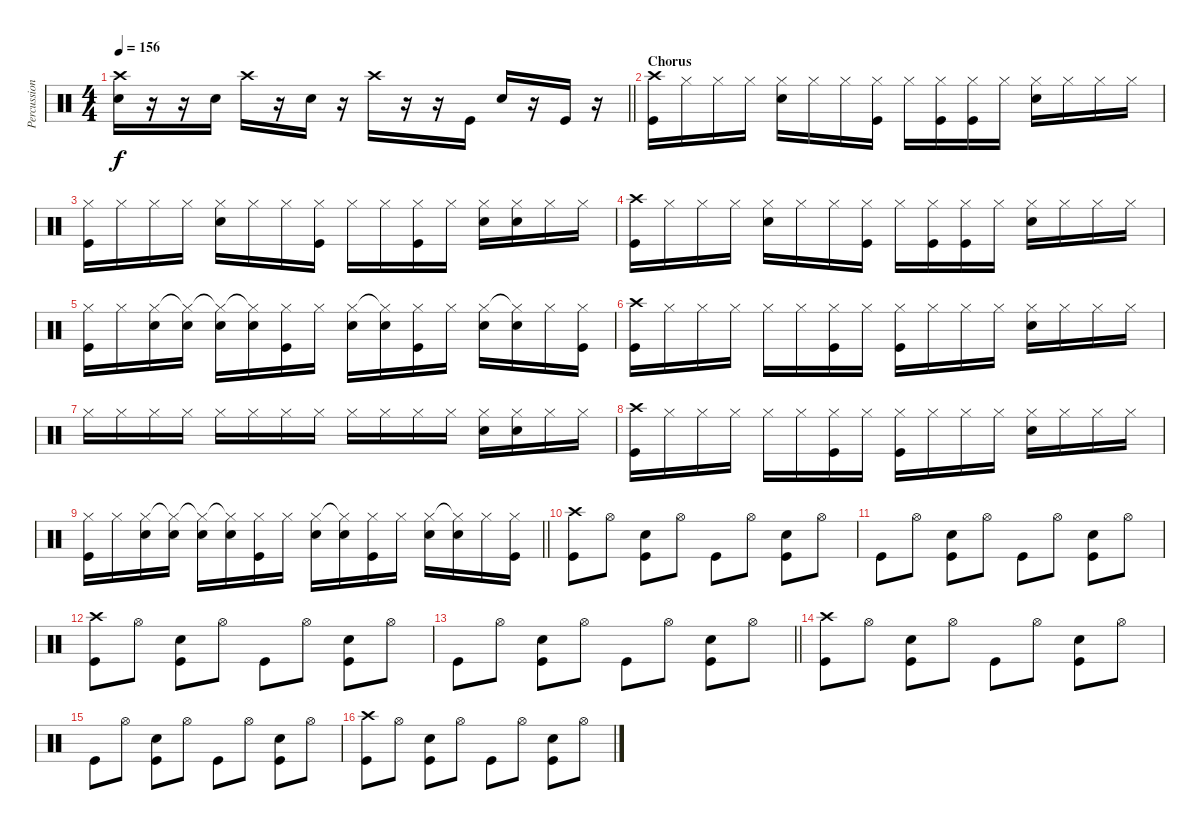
\track ("Percussion" "Percussion") {instrument percussion}
\staff {score}
\articulation defaults
\ts (4 4)
\tempo 156
\clef neutral
\barLineRight lightlight
\ks c
("Crash high (hit)" "Snare (hit) 2").16{dy f} r.16 r.16 "Snare (hit) 2".16 "Crash high (hit)".16 r.16 "Snare (hit) 2".16 r.16 "Crash high (hit)".16 r.16 r.16 "Kick (hit)".16 "Snare (hit) 2".16 r.16 "Kick (hit)".16 r.16 |
\section ("" "Chorus")
("Crash high (hit)" "Kick (hit)").16 "Hi-Hat (closed)".16 "Hi-Hat (closed)".16 "Hi-Hat (closed)".16 ("Hi-Hat (closed)" "Snare (hit) 2").16 "Hi-Hat (closed)".16 "Hi-Hat (closed)".16 ("Hi-Hat (closed)" "Kick (hit)").16 "Hi-Hat (closed)".16 ("Hi-Hat (closed)" "Kick (hit)").16 ("Hi-Hat (closed)" "Kick (hit)").16 "Hi-Hat (closed)".16 ("Hi-Hat (closed)" "Snare (hit) 2").16 "Hi-Hat (closed)".16 "Hi-Hat (closed)".16 "Hi-Hat (closed)".16 |
("Hi-Hat (closed)" "Kick (hit)").16 "Hi-Hat (closed)".16 "Hi-Hat (closed)".16 "Hi-Hat (closed)".16 ("Hi-Hat (closed)" "Snare (hit) 2").16 "Hi-Hat (closed)".16 "Hi-Hat (closed)".16 ("Hi-Hat (closed)" "Kick (hit)").16 "Hi-Hat (closed)".16 "Hi-Hat (closed)".16 ("Hi-Hat (closed)" "Kick (hit)").16 "Hi-Hat (closed)".16 ("Hi-Hat (closed)" "Snare (hit) 2").16 ("Hi-Hat (closed)" "Snare (hit) 2").16 "Hi-Hat (closed)".16 "Hi-Hat (closed)".16 |
("Crash high (hit)" "Kick (hit)").16 "Hi-Hat (closed)".16 "Hi-Hat (closed)".16 "Hi-Hat (closed)".16 ("Hi-Hat (closed)" "Snare (hit) 2").16 "Hi-Hat (closed)".16 "Hi-Hat (closed)".16 ("Hi-Hat (closed)" "Kick (hit)").16 "Hi-Hat (closed)".16 ("Hi-Hat (closed)" "Kick (hit)").16 ("Hi-Hat (closed)" "Kick (hit)").16 "Hi-Hat (closed)".16 ("Hi-Hat (closed)" "Snare (hit) 2").16 "Hi-Hat (closed)".16 "Hi-Hat (closed)".16 "Hi-Hat (closed)".16 |
("Hi-Hat (closed)" "Kick (hit)").16 "Hi-Hat (closed)".16 ("Hi-Hat (closed)" "Snare (hit) 2").16 ("Hi-Hat (closed)"{t} "Snare (hit) 2").16 ("Hi-Hat (closed)"{t} "Snare (hit) 2").16 ("Hi-Hat (closed)"{t} "Snare (hit) 2").16 ("Hi-Hat (closed)" "Kick (hit)").16 "Hi-Hat (closed)".16 ("Hi-Hat (closed)" "Snare (hit) 2").16 ("Hi-Hat (closed)"{t} "Snare (hit) 2").16 ("Hi-Hat (closed)" "Kick (hit)").16 "Hi-Hat (closed)".16 ("Hi-Hat (closed)" "Snare (hit) 2").16 ("Hi-Hat (closed)"{t} "Snare (hit) 2").16 "Hi-Hat (closed)".16 ("Hi-Hat (closed)" "Kick (hit)").16 |
("Crash high (hit)" "Kick (hit)").16 "Hi-Hat (closed)".16 "Hi-Hat (closed)".16 "Hi-Hat (closed)".16 "Hi-Hat (closed)".16 "Hi-Hat (closed)".16 ("Hi-Hat (closed)" "Kick (hit)").16 "Hi-Hat (closed)".16 ("Hi-Hat (closed)" "Kick (hit)").16 "Hi-Hat (closed)".16 "Hi-Hat (closed)".16 "Hi-Hat (closed)".16 ("Hi-Hat (closed)" "Snare (hit) 2").16 "Hi-Hat (closed)".16 "Hi-Hat (closed)".16 "Hi-Hat (closed)".16 |
"Hi-Hat (closed)".16 "Hi-Hat (closed)".16 "Hi-Hat (closed)".16 "Hi-Hat (closed)".16 "Hi-Hat (closed)".16 "Hi-Hat (closed)".16 "Hi-Hat (closed)".16 "Hi-Hat (closed)".16 "Hi-Hat (closed)".16 "Hi-Hat (closed)".16 "Hi-Hat (closed)".16 "Hi-Hat (closed)".16 ("Hi-Hat (closed)" "Snare (hit) 2").16 ("Hi-Hat (closed)" "Snare (hit) 2").16 "Hi-Hat (closed)".16 "Hi-Hat (closed)".16 |
("Crash high (hit)" "Kick (hit)").16 "Hi-Hat (closed)".16 "Hi-Hat (closed)".16 "Hi-Hat (closed)".16 "Hi-Hat (closed)".16 "Hi-Hat (closed)".16 ("Hi-Hat (closed)" "Kick (hit)").16 "Hi-Hat (closed)".16 ("Hi-Hat (closed)" "Kick (hit)").16 "Hi-Hat (closed)".16 "Hi-Hat (closed)".16 "Hi-Hat (closed)".16 ("Hi-Hat (closed)" "Snare (hit) 2").16 "Hi-Hat (closed)".16 "Hi-Hat (closed)".16 "Hi-Hat (closed)".16 |
\barLineRight lightlight
("Hi-Hat (closed)" "Kick (hit)").16 "Hi-Hat (closed)".16 ("Hi-Hat (closed)" "Snare (hit) 2").16 ("Hi-Hat (closed)"{t} "Snare (hit) 2").16 ("Hi-Hat (closed)"{t} "Snare (hit) 2").16 ("Hi-Hat (closed)"{t} "Snare (hit) 2").16 ("Hi-Hat (closed)" "Kick (hit)").16 "Hi-Hat (closed)".16 ("Hi-Hat (closed)" "Snare (hit) 2").16 ("Hi-Hat (closed)"{t} "Snare (hit) 2").16 ("Hi-Hat (closed)" "Kick (hit)").16 "Hi-Hat (closed)".16 ("Hi-Hat (closed)" "Snare (hit) 2").16 ("Hi-Hat (closed)"{t} "Snare (hit) 2").16 "Hi-Hat (closed)".16 ("Hi-Hat (closed)" "Kick (hit)").16 |
("Crash high (hit)" "Kick (hit)").8 "Hi-Hat (open)".8 ("Snare (hit) 2" "Kick (hit)").8 "Hi-Hat (open)".8 "Kick (hit)".8 "Hi-Hat (open)".8 ("Snare (hit) 2" "Kick (hit)").8 "Hi-Hat (open)".8 |
"Kick (hit)".8 "Hi-Hat (open)".8 ("Snare (hit) 2" "Kick (hit)").8 "Hi-Hat (open)".8 "Kick (hit)".8 "Hi-Hat (open)".8 ("Snare (hit) 2" "Kick (hit)").8 "Hi-Hat (open)".8 |
("Crash high (hit)" "Kick (hit)").8 "Hi-Hat (open)".8 ("Snare (hit) 2" "Kick (hit)").8 "Hi-Hat (open)".8 "Kick (hit)".8 "Hi-Hat (open)".8 ("Snare (hit) 2" "Kick (hit)").8 "Hi-Hat (open)".8 |
\barLineRight lightlight "Kick (hit)".8 "Hi-Hat (open)".8
("Snare (hit) 2" "Kick (hit)").8 "Hi-Hat (open)".8 "Kick (hit)".8 "Hi-Hat (open)".8 ("Snare (hit) 2" "Kick (hit)").8 "Hi-Hat (open)".8 |
("Crash high (hit)" "Kick (hit)").8 "Hi-Hat (open)".8 ("Snare (hit) 2" "Kick (hit)").8 "Hi-Hat (open)".8 "Kick (hit)".8 "Hi-Hat (open)".8 ("Snare (hit) 2" "Kick (hit)").8 "Hi-Hat (open)".8 |
"Kick (hit)".8 "Hi-Hat (open)".8 ("Snare (hit) 2" "Kick (hit)").8 "Hi-Hat (open)".8 "Kick (hit)".8 "Hi-Hat (open)".8 ("Snare (hit) 2" "Kick (hit)").8 "Hi-Hat (open)".8 |
("Crash high (hit)" "Kick (hit)").8 "Hi-Hat (open)".8 ("Snare (hit) 2" "Kick (hit)").8 "Hi-Hat (open)".8 "Kick (hit)".8 "Hi-Hat (open)".8 ("Snare (hit) 2" "Kick (hit)").8 "Hi-Hat (open)".8
